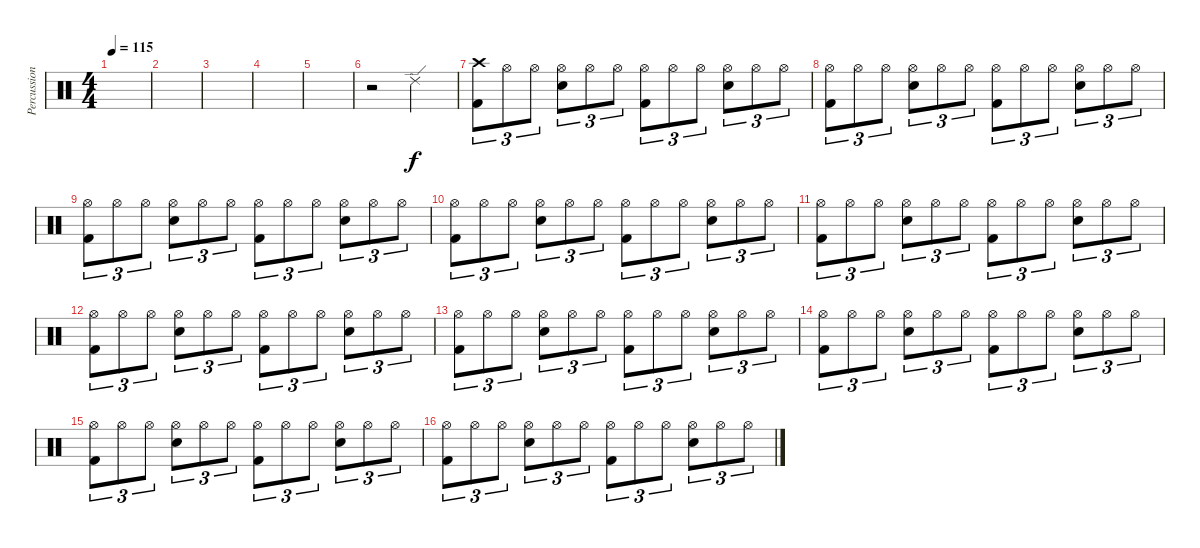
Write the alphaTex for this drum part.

\track ("Percussion" "Percussion") {instrument percussion}
\staff {score}
\articulation defaults
\ts (4 4)
\tempo 115
\clef neutral
\ks c
|
|
|
|
|
r.2 "Ride (edge) 2".2 |
("Crash high (hit)" "Kick (hit) 2").8{tu (3 2)} "Hi-Hat (open)".8{tu (3 2)} "Hi-Hat (open)".8{tu (3 2)} ("Hi-Hat (open)" "Snare (hit) 2").8{tu (3 2)} "Hi-Hat (open)".8{tu (3 2)} "Hi-Hat (open)".8{tu (3 2)} ("Hi-Hat (open)" "Kick (hit) 2").8{tu (3 2)} "Hi-Hat (open)".8{tu (3 2)} "Hi-Hat (open)".8{tu (3 2)} ("Hi-Hat (open)" "Snare (hit) 2").8{tu (3 2)} "Hi-Hat (open)".8{tu (3 2)} "Hi-Hat (open)".8{tu (3 2)} |
("Hi-Hat (open)" "Kick (hit) 2").8{tu (3 2)} "Hi-Hat (open)".8{tu (3 2)} "Hi-Hat (open)".8{tu (3 2)} ("Hi-Hat (open)" "Snare (hit) 2").8{tu (3 2)} "Hi-Hat (open)".8{tu (3 2)} "Hi-Hat (open)".8{tu (3 2)} ("Hi-Hat (open)" "Kick (hit) 2").8{tu (3 2)} "Hi-Hat (open)".8{tu (3 2)} "Hi-Hat (open)".8{tu (3 2)} ("Hi-Hat (open)" "Snare (hit) 2").8{tu (3 2)} "Hi-Hat (open)".8{tu (3 2)} "Hi-Hat (open)".8{tu (3 2)} |
("Hi-Hat (open)" "Kick (hit) 2").8{tu (3 2)} "Hi-Hat (open)".8{tu (3 2)} "Hi-Hat (open)".8{tu (3 2)} ("Hi-Hat (open)" "Snare (hit) 2").8{tu (3 2)} "Hi-Hat (open)".8{tu (3 2)} "Hi-Hat (open)".8{tu (3 2)} ("Hi-Hat (open)" "Kick (hit) 2").8{tu (3 2)} "Hi-Hat (open)".8{tu (3 2)} "Hi-Hat (open)".8{tu (3 2)} ("Hi-Hat (open)" "Snare (hit) 2").8{tu (3 2)} "Hi-Hat (open)".8{tu (3 2)} "Hi-Hat (open)".8{tu (3 2)} |
("Hi-Hat (open)" "Kick (hit) 2").8{tu (3 2)} "Hi-Hat (open)".8{tu (3 2)} "Hi-Hat (open)".8{tu (3 2)} ("Hi-Hat (open)" "Snare (hit) 2").8{tu (3 2)} "Hi-Hat (open)".8{tu (3 2)} "Hi-Hat (open)".8{tu (3 2)} ("Hi-Hat (open)" "Kick (hit) 2").8{tu (3 2)} "Hi-Hat (open)".8{tu (3 2)} "Hi-Hat (open)".8{tu (3 2)} ("Hi-Hat (open)" "Snare (hit) 2").8{tu (3 2)} "Hi-Hat (open)".8{tu (3 2)} "Hi-Hat (open)".8{tu (3 2)} |
("Hi-Hat (open)" "Kick (hit) 2").8{tu (3 2)} "Hi-Hat (open)".8{tu (3 2)} "Hi-Hat (open)".8{tu (3 2)} ("Hi-Hat (open)" "Snare (hit) 2").8{tu (3 2)} "Hi-Hat (open)".8{tu (3 2)} "Hi-Hat (open)".8{tu (3 2)} ("Hi-Hat (open)" "Kick (hit) 2").8{tu (3 2)} "Hi-Hat (open)".8{tu (3 2)} "Hi-Hat (open)".8{tu (3 2)} ("Hi-Hat (open)" "Snare (hit) 2").8{tu (3 2)} "Hi-Hat (open)".8{tu (3 2)} "Hi-Hat (open)".8{tu (3 2)} |
("Hi-Hat (open)" "Kick (hit) 2").8{tu (3 2)} "Hi-Hat (open)".8{tu (3 2)} "Hi-Hat (open)".8{tu (3 2)} ("Hi-Hat (open)" "Snare (hit) 2").8{tu (3 2)} "Hi-Hat (open)".8{tu (3 2)} "Hi-Hat (open)".8{tu (3 2)} ("Hi-Hat (open)" "Kick (hit) 2").8{tu (3 2)} "Hi-Hat (open)".8{tu (3 2)} "Hi-Hat (open)".8{tu (3 2)} ("Hi-Hat (open)" "Snare (hit) 2").8{tu (3 2)} "Hi-Hat (open)".8{tu (3 2)} "Hi-Hat (open)".8{tu (3 2)} |
("Hi-Hat (open)" "Kick (hit) 2").8{tu (3 2)} "Hi-Hat (open)".8{tu (3 2)} "Hi-Hat (open)".8{tu (3 2)} ("Hi-Hat (open)" "Snare (hit) 2").8{tu (3 2)} "Hi-Hat (open)".8{tu (3 2)} "Hi-Hat (open)".8{tu (3 2)} ("Hi-Hat (open)" "Kick (hit) 2").8{tu (3 2)} "Hi-Hat (open)".8{tu (3 2)} "Hi-Hat (open)".8{tu (3 2)} ("Hi-Hat (open)" "Snare (hit) 2").8{tu (3 2)} "Hi-Hat (open)".8{tu (3 2)} "Hi-Hat (open)".8{tu (3 2)} |
("Hi-Hat (open)" "Kick (hit) 2").8{tu (3 2)} "Hi-Hat (open)".8{tu (3 2)} "Hi-Hat (open)".8{tu (3 2)} ("Hi-Hat (open)" "Snare (hit) 2").8{tu (3 2)} "Hi-Hat (open)".8{tu (3 2)} "Hi-Hat (open)".8{tu (3 2)} ("Hi-Hat (open)" "Kick (hit) 2").8{tu (3 2)} "Hi-Hat (open)".8{tu (3 2)} "Hi-Hat (open)".8{tu (3 2)} ("Hi-Hat (open)" "Snare (hit) 2").8{tu (3 2)} "Hi-Hat (open)".8{tu (3 2)} "Hi-Hat (open)".8{tu (3 2)} |
("Hi-Hat (open)" "Kick (hit) 2").8{tu (3 2)} "Hi-Hat (open)".8{tu (3 2)} "Hi-Hat (open)".8{tu (3 2)} ("Hi-Hat (open)" "Snare (hit) 2").8{tu (3 2)} "Hi-Hat (open)".8{tu (3 2)} "Hi-Hat (open)".8{tu (3 2)} ("Hi-Hat (open)" "Kick (hit) 2").8{tu (3 2)} "Hi-Hat (open)".8{tu (3 2)} "Hi-Hat (open)".8{tu (3 2)} ("Hi-Hat (open)" "Snare (hit) 2").8{tu (3 2)} "Hi-Hat (open)".8{tu (3 2)} "Hi-Hat (open)".8{tu (3 2)} |
("Hi-Hat (open)" "Kick (hit) 2").8{tu (3 2)} "Hi-Hat (open)".8{tu (3 2)} "Hi-Hat (open)".8{tu (3 2)} ("Hi-Hat (open)" "Snare (hit) 2").8{tu (3 2)} "Hi-Hat (open)".8{tu (3 2)} "Hi-Hat (open)".8{tu (3 2)} ("Hi-Hat (open)" "Kick (hit) 2").8{tu (3 2)} "Hi-Hat (open)".8{tu (3 2)} "Hi-Hat (open)".8{tu (3 2)} ("Hi-Hat (open)" "Snare (hit) 2").8{tu (3 2)} "Hi-Hat (open)".8{tu (3 2)} "Hi-Hat (open)".8{tu (3 2)}
